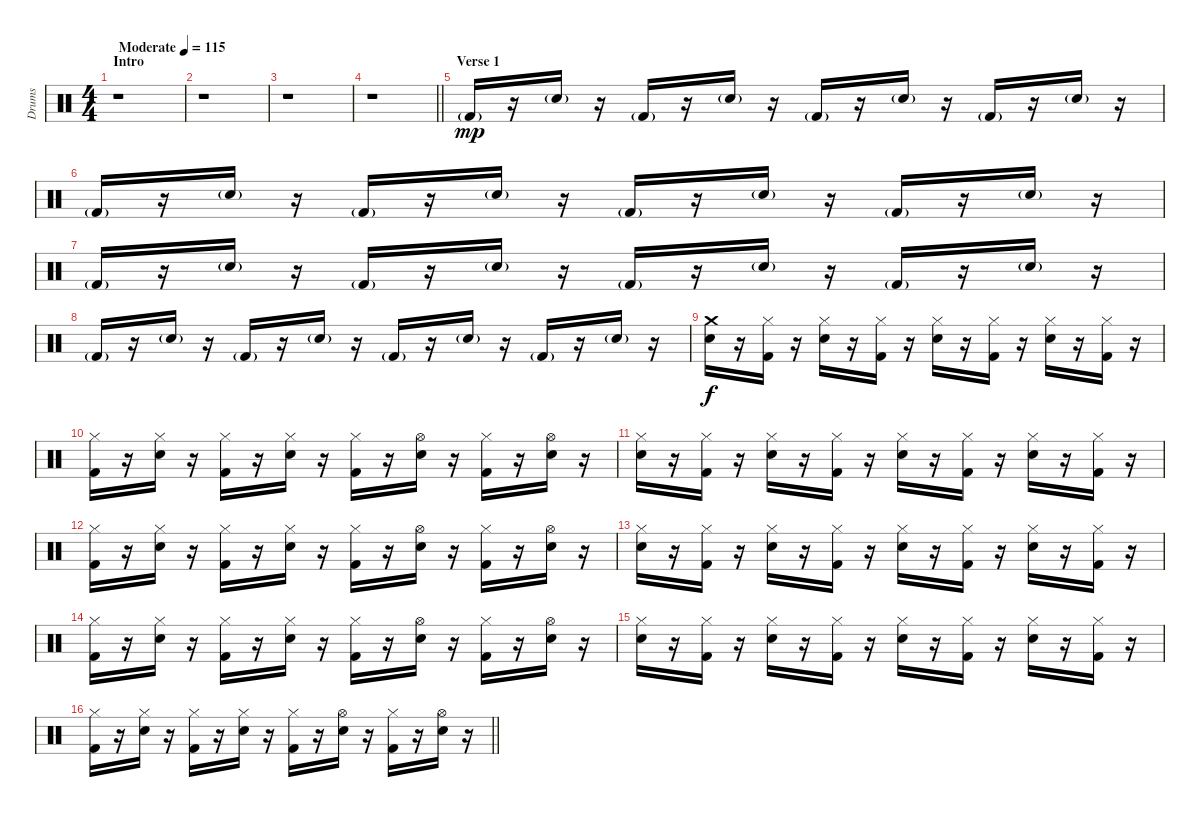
\track ("Drums" "Drums") {instrument percussion}
\staff {score}
\articulation defaults
\ts (4 4)
\section ("" "Intro")
\tempo (115 "Moderate")
\clef neutral
\ks c
r.1{dy mp} |
r.1 |
r.1 |
\barLineRight lightlight
r.1 |
\section ("" "Verse 1")
"Kick (hit) 2"{g}.16 r.16 "Snare (hit) 2"{g}.16 r.16 "Kick (hit) 2"{g}.16 r.16 "Snare (hit) 2"{g}.16 r.16 "Kick (hit) 2"{g}.16 r.16 "Snare (hit) 2"{g}.16 r.16 "Kick (hit) 2"{g}.16 r.16 "Snare (hit) 2"{g}.16 r.16 |
"Kick (hit) 2"{g}.16 r.16 "Snare (hit) 2"{g}.16 r.16 "Kick (hit) 2"{g}.16 r.16 "Snare (hit) 2"{g}.16 r.16 "Kick (hit) 2"{g}.16 r.16 "Snare (hit) 2"{g}.16 r.16 "Kick (hit) 2"{g}.16 r.16 "Snare (hit) 2"{g}.16 r.16 |
"Kick (hit) 2"{g}.16 r.16 "Snare (hit) 2"{g}.16 r.16 "Kick (hit) 2"{g}.16 r.16 "Snare (hit) 2"{g}.16 r.16 "Kick (hit) 2"{g}.16 r.16 "Snare (hit) 2"{g}.16 r.16 "Kick (hit) 2"{g}.16 r.16 "Snare (hit) 2"{g}.16 r.16 |
"Kick (hit) 2"{g}.16 r.16 "Snare (hit) 2"{g}.16 r.16 "Kick (hit) 2"{g}.16 r.16 "Snare (hit) 2"{g}.16 r.16 "Kick (hit) 2"{g}.16 r.16 "Snare (hit) 2"{g}.16 r.16 "Kick (hit) 2"{g}.16 r.16 "Snare (hit) 2"{g}.16 r.16 |
("Crash medium (hit)" "Snare (hit) 2").16{dy f} r.16 ("Hi-Hat (closed)" "Kick (hit) 2").16 r.16 ("Hi-Hat (closed)" "Snare (hit) 2").16 r.16 ("Hi-Hat (closed)" "Kick (hit) 2").16 r.16 ("Hi-Hat (closed)" "Snare (hit) 2").16 r.16 ("Hi-Hat (closed)" "Kick (hit) 2").16 r.16 ("Hi-Hat (closed)" "Snare (hit) 2").16 r.16 ("Hi-Hat (closed)" "Kick (hit) 2").16 r.16 |
("Hi-Hat (closed)" "Kick (hit) 2").16 r.16 ("Hi-Hat (closed)" "Snare (hit) 2").16 r.16 ("Hi-Hat (closed)" "Kick (hit) 2").16 r.16 ("Hi-Hat (closed)" "Snare (hit) 2").16 r.16 ("Hi-Hat (closed)" "Kick (hit) 2").16 r.16 ("Hi-Hat (open)" "Snare (hit) 2").16 r.16 ("Hi-Hat (closed)" "Kick (hit) 2").16 r.16 ("Hi-Hat (open)" "Snare (hit) 2").16 r.16 |
("Hi-Hat (closed)" "Snare (hit) 2").16 r.16 ("Hi-Hat (closed)" "Kick (hit) 2").16 r.16 ("Hi-Hat (closed)" "Snare (hit) 2").16 r.16 ("Hi-Hat (closed)" "Kick (hit) 2").16 r.16 ("Hi-Hat (closed)" "Snare (hit) 2").16 r.16 ("Hi-Hat (closed)" "Kick (hit) 2").16 r.16 ("Hi-Hat (closed)" "Snare (hit) 2").16 r.16 ("Hi-Hat (closed)" "Kick (hit) 2").16 r.16 |
("Hi-Hat (closed)" "Kick (hit) 2").16 r.16 ("Hi-Hat (closed)" "Snare (hit) 2").16 r.16 ("Hi-Hat (closed)" "Kick (hit) 2").16 r.16 ("Hi-Hat (closed)" "Snare (hit) 2").16 r.16 ("Hi-Hat (closed)" "Kick (hit) 2").16 r.16 ("Hi-Hat (open)" "Snare (hit) 2").16 r.16 ("Hi-Hat (closed)" "Kick (hit) 2").16 r.16 ("Hi-Hat (open)" "Snare (hit) 2").16 r.16 |
("Hi-Hat (closed)" "Snare (hit) 2").16 r.16 ("Hi-Hat (closed)" "Kick (hit) 2").16 r.16 ("Hi-Hat (closed)" "Snare (hit) 2").16 r.16 ("Hi-Hat (closed)" "Kick (hit) 2").16 r.16 ("Hi-Hat (closed)" "Snare (hit) 2").16 r.16 ("Hi-Hat (closed)" "Kick (hit) 2").16 r.16 ("Hi-Hat (closed)" "Snare (hit) 2").16 r.16 ("Hi-Hat (closed)" "Kick (hit) 2").16 r.16 |
("Hi-Hat (closed)" "Kick (hit) 2").16 r.16 ("Hi-Hat (closed)" "Snare (hit) 2").16 r.16 ("Hi-Hat (closed)" "Kick (hit) 2").16 r.16 ("Hi-Hat (closed)" "Snare (hit) 2").16 r.16 ("Hi-Hat (closed)" "Kick (hit) 2").16 r.16 ("Hi-Hat (open)" "Snare (hit) 2").16 r.16 ("Hi-Hat (closed)" "Kick (hit) 2").16 r.16 ("Hi-Hat (open)" "Snare (hit) 2").16 r.16 |
("Hi-Hat (closed)" "Snare (hit) 2").16 r.16 ("Hi-Hat (closed)" "Kick (hit) 2").16 r.16 ("Hi-Hat (closed)" "Snare (hit) 2").16 r.16 ("Hi-Hat (closed)" "Kick (hit) 2").16 r.16 ("Hi-Hat (closed)" "Snare (hit) 2").16 r.16 ("Hi-Hat (closed)" "Kick (hit) 2").16 r.16 ("Hi-Hat (closed)" "Snare (hit) 2").16 r.16 ("Hi-Hat (closed)" "Kick (hit) 2").16 r.16 |
\barLineRight lightlight
("Hi-Hat (closed)" "Kick (hit) 2").16 r.16 ("Hi-Hat (closed)" "Snare (hit) 2").16 r.16 ("Hi-Hat (closed)" "Kick (hit) 2").16 r.16 ("Hi-Hat (closed)" "Snare (hit) 2").16 r.16 ("Hi-Hat (closed)" "Kick (hit) 2").16 r.16 ("Hi-Hat (open)" "Snare (hit) 2").16 r.16 ("Hi-Hat (closed)" "Kick (hit) 2").16 r.16 ("Hi-Hat (open)" "Snare (hit) 2").16 r.16
